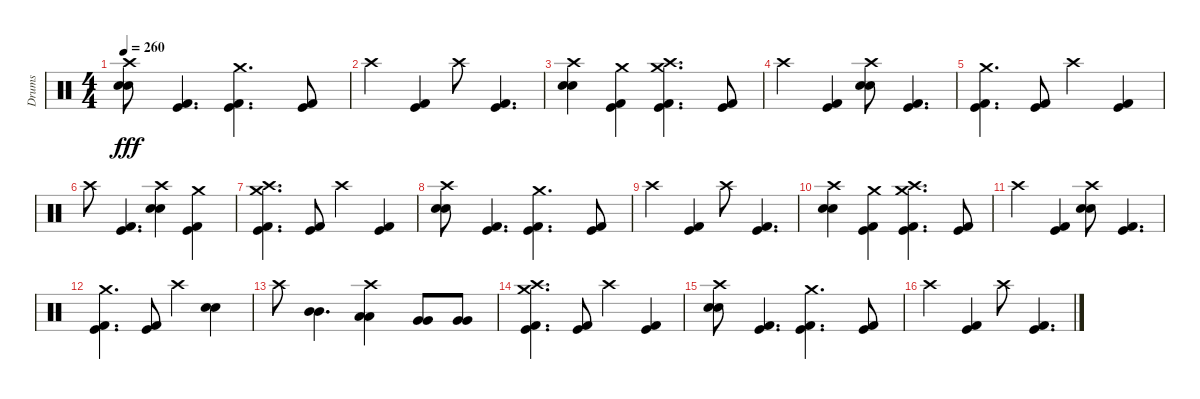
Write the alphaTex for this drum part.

\track ("Drums" "Drums") {instrument percussion}
\staff {score}
\articulation defaults
\ts (4 4)
\tempo 260
\clef neutral
\ks c
("Electric Snare (hit)" "Electric Snare (hit)" "Crash high (hit)").8{dy fff} ("Kick (hit)" "Kick (hit) 2").4{d} ("Kick (hit)" "Kick (hit) 2" "Crash medium (hit)").4{d} ("Kick (hit)" "Kick (hit) 2").8 |
"Crash high (hit)".4 ("Kick (hit)" "Kick (hit) 2").4 "Crash high (hit)".8 ("Kick (hit)" "Kick (hit) 2").4{d} |
("Electric Snare (hit)" "Electric Snare (hit)" "Crash high (hit)").4 ("Kick (hit)" "Kick (hit) 2" "Crash medium (hit)").4 ("Kick (hit)" "Kick (hit) 2" "Crash high (hit)" "Crash medium (hit)").4{d} ("Kick (hit)" "Kick (hit) 2").8 |
"Crash high (hit)".4 ("Kick (hit)" "Kick (hit) 2").4 ("Electric Snare (hit)" "Electric Snare (hit)" "Crash high (hit)").8 ("Kick (hit)" "Kick (hit) 2").4{d} |
("Kick (hit)" "Kick (hit) 2" "Crash medium (hit)").4{d} ("Kick (hit)" "Kick (hit) 2").8 "Crash high (hit)".4 ("Kick (hit)" "Kick (hit) 2").4 |
"Crash high (hit)".8 ("Kick (hit)" "Kick (hit) 2").4{d} ("Electric Snare (hit)" "Electric Snare (hit)" "Crash high (hit)").4 ("Kick (hit)" "Kick (hit) 2" "Crash medium (hit)").4 |
("Kick (hit)" "Kick (hit) 2" "Crash high (hit)" "Crash medium (hit)").4{d} ("Kick (hit)" "Kick (hit) 2").8 "Crash high (hit)".4 ("Kick (hit)" "Kick (hit) 2").4 |
("Electric Snare (hit)" "Electric Snare (hit)" "Crash high (hit)").8 ("Kick (hit)" "Kick (hit) 2").4{d} ("Kick (hit)" "Kick (hit) 2" "Crash medium (hit)").4{d} ("Kick (hit)" "Kick (hit) 2").8 |
"Crash high (hit)".4 ("Kick (hit)" "Kick (hit) 2").4 "Crash high (hit)".8 ("Kick (hit)" "Kick (hit) 2").4{d} |
("Electric Snare (hit)" "Electric Snare (hit)" "Crash high (hit)").4 ("Kick (hit)" "Kick (hit) 2" "Crash medium (hit)").4 ("Kick (hit)" "Kick (hit) 2" "Crash high (hit)" "Crash medium (hit)").4{d} ("Kick (hit)" "Kick (hit) 2").8 |
"Crash high (hit)".4 ("Kick (hit)" "Kick (hit) 2").4 ("Electric Snare (hit)" "Electric Snare (hit)" "Crash high (hit)").8 ("Kick (hit)" "Kick (hit) 2").4{d} |
("Kick (hit)" "Kick (hit) 2" "Crash medium (hit)").4{d} ("Kick (hit)" "Kick (hit) 2").8 "Crash high (hit)".4 ("Electric Snare (hit)" "Electric Snare (hit)").4 |
"Crash high (hit)".8 ("Mid Tom (hit)" "Mid Tom (hit)").4{d} ("Low Tom (hit)" "Low Tom (hit)" "Crash high (hit)").4 ("Very Low Tom (hit)" "Very Low Tom (hit)").8 ("Very Low Tom (hit)" "Very Low Tom (hit)").8 |
("Kick (hit)" "Kick (hit) 2" "Crash high (hit)" "Crash medium (hit)").4{d} ("Kick (hit)" "Kick (hit) 2").8 "Crash high (hit)".4 ("Kick (hit)" "Kick (hit) 2").4 |
("Electric Snare (hit)" "Electric Snare (hit)" "Crash high (hit)").8 ("Kick (hit)" "Kick (hit) 2").4{d} ("Kick (hit)" "Kick (hit) 2" "Crash medium (hit)").4{d} ("Kick (hit)" "Kick (hit) 2").8 |
"Crash high (hit)".4 ("Kick (hit)" "Kick (hit) 2").4 "Crash high (hit)".8 ("Kick (hit)" "Kick (hit) 2").4{d}
